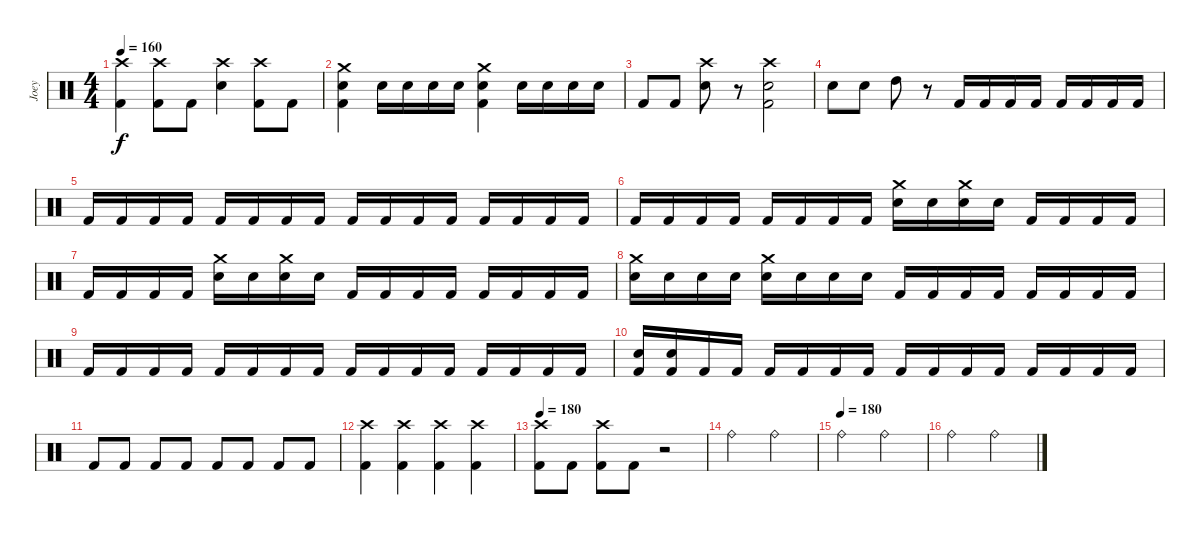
\track ("Joey" "Joey") {instrument percussion}
\staff {score}
\articulation defaults
\ts (4 4)
\tempo 160
\clef neutral
\ks c
("Crash high (hit)" "Kick (hit) 2").4{dy f} ("Crash high (hit)" "Kick (hit) 2").8 "Kick (hit) 2".8 ("Crash high (hit)" "Electric Snare (hit)").4 ("Crash high (hit)" "Kick (hit) 2").8 "Kick (hit) 2".8 |
("Crash medium (hit)" "Electric Snare (hit)" "Kick (hit) 2").4 "Electric Snare (hit)".16 "Electric Snare (hit)".16 "Electric Snare (hit)".16 "Electric Snare (hit)".16 ("Crash medium (hit)" "Electric Snare (hit)" "Kick (hit) 2").4 "Electric Snare (hit)".16 "Electric Snare (hit)".16 "Electric Snare (hit)".16 "Electric Snare (hit)".16 |
"Kick (hit) 2".8 "Kick (hit) 2".8 ("Crash high (hit)" "Electric Snare (hit)").8 r.8 ("Crash high (hit)" "Electric Snare (hit)" "Kick (hit) 2").2 |
"Electric Snare (hit)".8 "Electric Snare (hit)".8 "High Tom (hit)".8 r.8 "Kick (hit) 2".16 "Kick (hit) 2".16 "Kick (hit) 2".16 "Kick (hit) 2".16 "Kick (hit) 2".16 "Kick (hit) 2".16 "Kick (hit) 2".16 "Kick (hit) 2".16 |
"Kick (hit) 2".16 "Kick (hit) 2".16 "Kick (hit) 2".16 "Kick (hit) 2".16 "Kick (hit) 2".16 "Kick (hit) 2".16 "Kick (hit) 2".16 "Kick (hit) 2".16 "Kick (hit) 2".16 "Kick (hit) 2".16 "Kick (hit) 2".16 "Kick (hit) 2".16 "Kick (hit) 2".16 "Kick (hit) 2".16 "Kick (hit) 2".16 "Kick (hit) 2".16 |
"Kick (hit) 2".16 "Kick (hit) 2".16 "Kick (hit) 2".16 "Kick (hit) 2".16 "Kick (hit) 2".16 "Kick (hit) 2".16 "Kick (hit) 2".16 "Kick (hit) 2".16 ("Crash medium (hit)" "Electric Snare (hit)").16 "Electric Snare (hit)".16 ("Crash medium (hit)" "Electric Snare (hit)").16 "Electric Snare (hit)".16 "Kick (hit) 2".16 "Kick (hit) 2".16 "Kick (hit) 2".16 "Kick (hit) 2".16 |
"Kick (hit) 2".16 "Kick (hit) 2".16 "Kick (hit) 2".16 "Kick (hit) 2".16 ("Crash medium (hit)" "Electric Snare (hit)").16 "Electric Snare (hit)".16 ("Crash medium (hit)" "Electric Snare (hit)").16 "Electric Snare (hit)".16 "Kick (hit) 2".16 "Kick (hit) 2".16 "Kick (hit) 2".16 "Kick (hit) 2".16 "Kick (hit) 2".16 "Kick (hit) 2".16 "Kick (hit) 2".16 "Kick (hit) 2".16 |
("Crash medium (hit)" "Electric Snare (hit)").16 "Electric Snare (hit)".16 "Electric Snare (hit)".16 "Electric Snare (hit)".16 ("Crash medium (hit)" "Electric Snare (hit)").16 "Electric Snare (hit)".16 "Electric Snare (hit)".16 "Electric Snare (hit)".16 "Kick (hit) 2".16 "Kick (hit) 2".16 "Kick (hit) 2".16 "Kick (hit) 2".16 "Kick (hit) 2".16 "Kick (hit) 2".16 "Kick (hit) 2".16 "Kick (hit) 2".16 |
"Kick (hit) 2".16 "Kick (hit) 2".16 "Kick (hit) 2".16 "Kick (hit) 2".16 "Kick (hit) 2".16 "Kick (hit) 2".16 "Kick (hit) 2".16 "Kick (hit) 2".16 "Kick (hit) 2".16 "Kick (hit) 2".16 "Kick (hit) 2".16 "Kick (hit) 2".16 "Kick (hit) 2".16 "Kick (hit) 2".16 "Kick (hit) 2".16 "Kick (hit) 2".16 |
("Electric Snare (hit)" "Kick (hit) 2").16 ("Electric Snare (hit)" "Kick (hit) 2").16 "Kick (hit) 2".16 "Kick (hit) 2".16 "Kick (hit) 2".16 "Kick (hit) 2".16 "Kick (hit) 2".16 "Kick (hit) 2".16 "Kick (hit) 2".16 "Kick (hit) 2".16 "Kick (hit) 2".16 "Kick (hit) 2".16 "Kick (hit) 2".16 "Kick (hit) 2".16 "Kick (hit) 2".16 "Kick (hit) 2".16 |
"Kick (hit) 2".8 "Kick (hit) 2".8 "Kick (hit) 2".8 "Kick (hit) 2".8 "Kick (hit) 2".8 "Kick (hit) 2".8 "Kick (hit) 2".8 "Kick (hit) 2".8 |
("Crash high (hit)" "Kick (hit) 2").4 ("Crash high (hit)" "Kick (hit) 2").4 ("Crash high (hit)" "Kick (hit) 2").4 ("Crash high (hit)" "Kick (hit) 2").4 |
\tempo 180
("Crash high (hit)" "Kick (hit) 2").8 "Kick (hit) 2".8 ("Crash high (hit)" "Kick (hit) 2").8 "Kick (hit) 2".8 r.2 |
"Ride (bell)".2 "Ride (bell)".2 |
\tempo (180)
"Ride (bell)".2 "Ride (bell)".2 |
"Ride (bell)".2 "Ride (bell)".2
